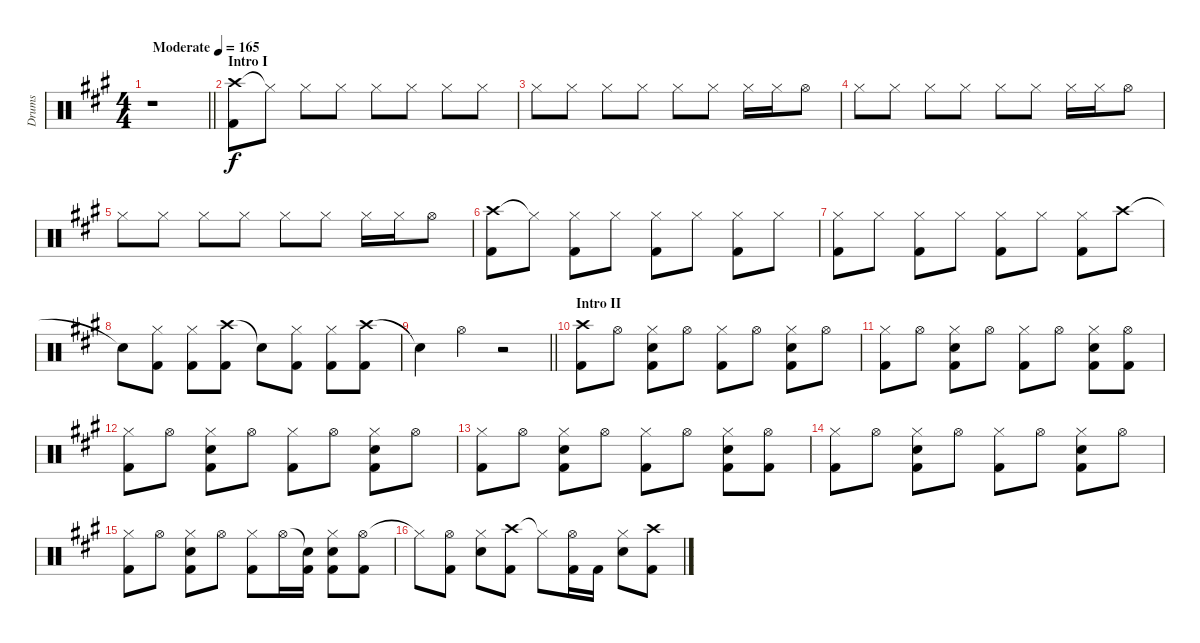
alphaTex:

\track ("Drums" "Drums") {instrument percussion}
\staff {score}
\articulation defaults
\ts (4 4)
\tempo (165 "Moderate")
\clef neutral
\barLineRight lightlight
\ks a
r.1{dy f} |
\section ("" "Intro I")
("Crash high (hit)" "Kick (hit) 2").8 "Hi-Hat (closed)"{t}.8 "Hi-Hat (closed)".8 "Hi-Hat (closed)".8 "Hi-Hat (closed)".8 "Hi-Hat (closed)".8 "Hi-Hat (closed)".8 "Hi-Hat (closed)".8 |
"Hi-Hat (closed)".8 "Hi-Hat (closed)".8 "Hi-Hat (closed)".8 "Hi-Hat (closed)".8 "Hi-Hat (closed)".8 "Hi-Hat (closed)".8 "Hi-Hat (closed)".16 "Hi-Hat (closed)".16 "Hi-Hat (open)".8 |
"Hi-Hat (closed)".8 "Hi-Hat (closed)".8 "Hi-Hat (closed)".8 "Hi-Hat (closed)".8 "Hi-Hat (closed)".8 "Hi-Hat (closed)".8 "Hi-Hat (closed)".16 "Hi-Hat (closed)".16 "Hi-Hat (open)".8 |
"Hi-Hat (closed)".8 "Hi-Hat (closed)".8 "Hi-Hat (closed)".8 "Hi-Hat (closed)".8 "Hi-Hat (closed)".8 "Hi-Hat (closed)".8 "Hi-Hat (closed)".16 "Hi-Hat (closed)".16 "Hi-Hat (open)".8 |
("Crash high (hit)" "Kick (hit) 2").8 "Hi-Hat (closed)"{t}.8 ("Hi-Hat (closed)" "Kick (hit) 2").8 "Hi-Hat (closed)".8 ("Hi-Hat (closed)" "Kick (hit) 2").8 "Hi-Hat (closed)".8 ("Hi-Hat (closed)" "Kick (hit) 2").8 "Hi-Hat (closed)".8 |
("Hi-Hat (closed)" "Kick (hit) 2").8 "Hi-Hat (closed)".8 ("Hi-Hat (closed)" "Kick (hit) 2").8 "Hi-Hat (closed)".8 ("Hi-Hat (closed)" "Kick (hit) 2").8 "Hi-Hat (closed)".8 ("Hi-Hat (closed)" "Kick (hit) 2").8 "Crash high (hit)".8 |
"Snare (hit)"{t}.8 ("Hi-Hat (closed)" "Kick (hit) 2").8 ("Hi-Hat (closed)" "Kick (hit) 2").8 ("Crash high (hit)" "Kick (hit) 2").8 "Snare (hit)"{t}.8 ("Hi-Hat (closed)" "Kick (hit) 2").8 ("Hi-Hat (closed)" "Kick (hit) 2").8 ("Crash high (hit)" "Kick (hit) 2").8 |
\barLineRight lightlight "Snare (hit)"{t}.4 "Hi-Hat (open)".4
r.2 |
\section ("" "Intro II")
("Crash high (hit)" "Kick (hit) 2").8 "Hi-Hat (open)".8 ("Hi-Hat (closed)" "Snare (hit) 2" "Kick (hit) 2").8 "Hi-Hat (open)".8 ("Hi-Hat (closed)" "Kick (hit) 2").8 "Hi-Hat (open)".8 ("Hi-Hat (closed)" "Snare (hit) 2" "Kick (hit) 2").8 "Hi-Hat (open)".8 |
("Hi-Hat (closed)" "Kick (hit) 2").8 "Hi-Hat (open)".8 ("Hi-Hat (closed)" "Snare (hit) 2" "Kick (hit) 2").8 "Hi-Hat (open)".8 ("Hi-Hat (closed)" "Kick (hit) 2").8 "Hi-Hat (open)".8 ("Hi-Hat (closed)" "Snare (hit) 2" "Kick (hit) 2").8 ("Hi-Hat (open)" "Kick (hit) 2").8 |
("Hi-Hat (closed)" "Kick (hit) 2").8 "Hi-Hat (open)".8 ("Hi-Hat (closed)" "Snare (hit) 2" "Kick (hit) 2").8 "Hi-Hat (open)".8 ("Hi-Hat (closed)" "Kick (hit) 2").8 "Hi-Hat (open)".8 ("Hi-Hat (closed)" "Snare (hit) 2" "Kick (hit) 2").8 "Hi-Hat (open)".8 |
("Hi-Hat (closed)" "Kick (hit) 2").8 "Hi-Hat (open)".8 ("Hi-Hat (closed)" "Snare (hit) 2" "Kick (hit) 2").8 "Hi-Hat (open)".8 ("Hi-Hat (closed)" "Kick (hit) 2").8 "Hi-Hat (open)".8 ("Hi-Hat (closed)" "Snare (hit) 2" "Kick (hit) 2").8 ("Hi-Hat (open)" "Kick (hit) 2").8 |
("Hi-Hat (closed)" "Kick (hit) 2").8 "Hi-Hat (open)".8 ("Hi-Hat (closed)" "Snare (hit) 2" "Kick (hit) 2").8 "Hi-Hat (open)".8 ("Hi-Hat (closed)" "Kick (hit) 2").8 "Hi-Hat (open)".8 ("Hi-Hat (closed)" "Snare (hit) 2" "Kick (hit) 2").8 "Hi-Hat (open)".8 |
("Hi-Hat (closed)" "Kick (hit) 2").8 "Hi-Hat (open)".8 ("Hi-Hat (closed)" "Snare (hit) 2" "Kick (hit) 2").8 "Hi-Hat (open)".8 ("Hi-Hat (closed)" "Kick (hit) 2").8 "Hi-Hat (open)".16 ("Snare (hit)"{t} "Kick (hit) 2").16 ("Hi-Hat (closed)" "Snare (hit) 2" "Kick (hit) 2").8 ("Hi-Hat (open)" "Kick (hit) 2").8 |
"Hi-Hat (closed)"{t}.8 ("Hi-Hat (open)" "Kick (hit) 2").8 ("Hi-Hat (closed)" "Snare (hit) 2").8 ("Crash high (hit)" "Kick (hit) 2").8 "Hi-Hat (closed)"{t}.8 ("Hi-Hat (open)" "Kick (hit) 2").16 "Kick (hit) 2".16 ("Hi-Hat (closed)" "Snare (hit) 2").8 ("Crash high (hit)" "Kick (hit) 2").8
